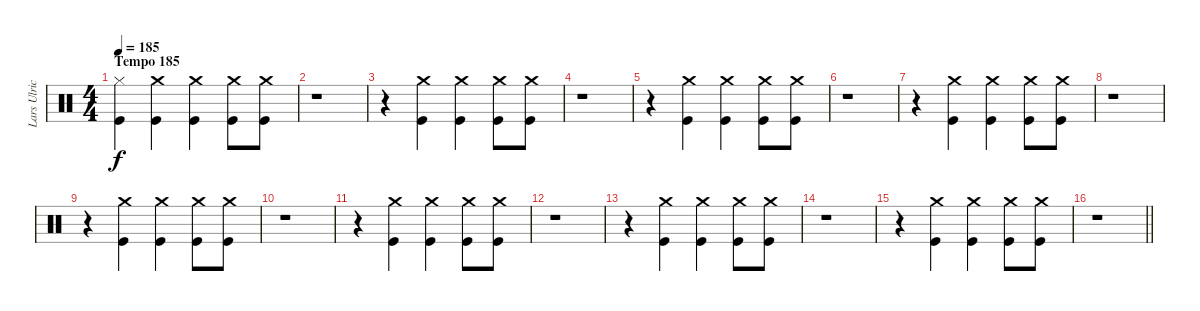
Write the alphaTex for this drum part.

\track ("Lars Ulrich (Drums)" "Lars Ulric") {instrument percussion}
\staff {score}
\articulation defaults
\ts (4 4)
\section ("" "Tempo 185")
\tempo 185
\clef neutral
\ks c
("Kick (hit)" "Hi-Hat (closed)").4{dy f} ("Crash medium (hit)" "Kick (hit)").4 ("Crash medium (hit)" "Kick (hit)").4 ("Kick (hit)" "Crash medium (hit)").8 ("Kick (hit)" "Crash medium (hit)").8 |
r.1 |
r.4 ("Kick (hit)" "Crash medium (hit)").4 ("Kick (hit)" "Crash medium (hit)").4 ("Kick (hit)" "Crash medium (hit)").8 ("Kick (hit)" "Crash medium (hit)").8 |
r.1 |
r.4 ("Crash medium (hit)" "Kick (hit)").4 ("Crash medium (hit)" "Kick (hit)").4 ("Kick (hit)" "Crash medium (hit)").8 ("Kick (hit)" "Crash medium (hit)").8 |
r.1 |
r.4 ("Kick (hit)" "Crash medium (hit)").4 ("Kick (hit)" "Crash medium (hit)").4 ("Kick (hit)" "Crash medium (hit)").8 ("Kick (hit)" "Crash medium (hit)").8 |
r.1 |
r.4 ("Crash medium (hit)" "Kick (hit)").4 ("Crash medium (hit)" "Kick (hit)").4 ("Kick (hit)" "Crash medium (hit)").8 ("Kick (hit)" "Crash medium (hit)").8 |
r.1 |
r.4 ("Kick (hit)" "Crash medium (hit)").4 ("Kick (hit)" "Crash medium (hit)").4 ("Kick (hit)" "Crash medium (hit)").8 ("Kick (hit)" "Crash medium (hit)").8 |
r.1 |
r.4 ("Crash medium (hit)" "Kick (hit)").4 ("Crash medium (hit)" "Kick (hit)").4 ("Kick (hit)" "Crash medium (hit)").8 ("Kick (hit)" "Crash medium (hit)").8 |
r.1 |
r.4 ("Kick (hit)" "Crash medium (hit)").4 ("Kick (hit)" "Crash medium (hit)").4 ("Kick (hit)" "Crash medium (hit)").8 ("Kick (hit)" "Crash medium (hit)").8 |
\barLineRight lightlight
r.1
